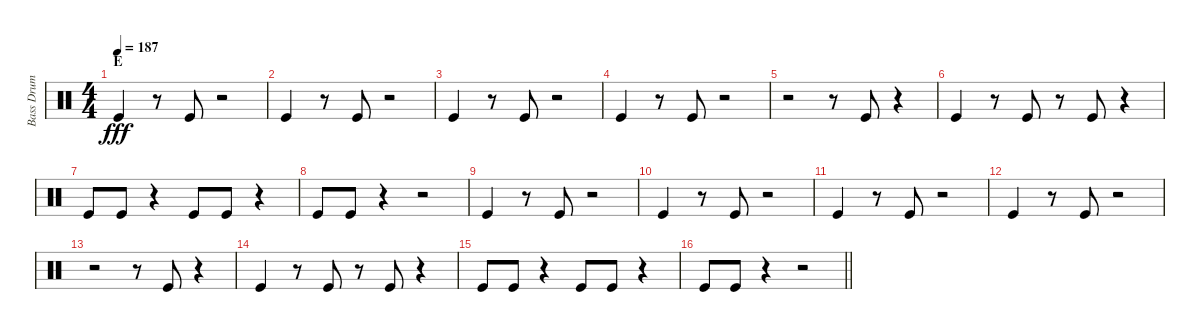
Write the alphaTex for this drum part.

\track ("Bass Drum" "Bass Drum") {instrument percussion}
\staff {score}
\articulation defaults
\ts (4 4)
\section ("" "E")
\tempo 187
\clef neutral
\ks c "Kick (hit)".4{dy fff}
r.8 "Kick (hit)".8 r.2 |
"Kick (hit)".4 r.8 "Kick (hit)".8 r.2 |
"Kick (hit)".4 r.8 "Kick (hit)".8 r.2 |
"Kick (hit)".4 r.8 "Kick (hit)".8 r.2 |
r.2 r.8 "Kick (hit)".8 r.4 |
"Kick (hit)".4 r.8 "Kick (hit)".8 r.8 "Kick (hit)".8 r.4 |
"Kick (hit)".8 "Kick (hit)".8 r.4 "Kick (hit)".8 "Kick (hit)".8 r.4 |
"Kick (hit)".8 "Kick (hit)".8 r.4 r.2 |
"Kick (hit)".4 r.8 "Kick (hit)".8 r.2 |
"Kick (hit)".4 r.8 "Kick (hit)".8 r.2 |
"Kick (hit)".4 r.8 "Kick (hit)".8 r.2 |
"Kick (hit)".4 r.8 "Kick (hit)".8 r.2 |
r.2 r.8 "Kick (hit)".8 r.4 |
"Kick (hit)".4 r.8 "Kick (hit)".8 r.8 "Kick (hit)".8 r.4 |
"Kick (hit)".8 "Kick (hit)".8 r.4 "Kick (hit)".8 "Kick (hit)".8 r.4 |
\barLineRight lightlight "Kick (hit)".8 "Kick (hit)".8
r.4 r.2
